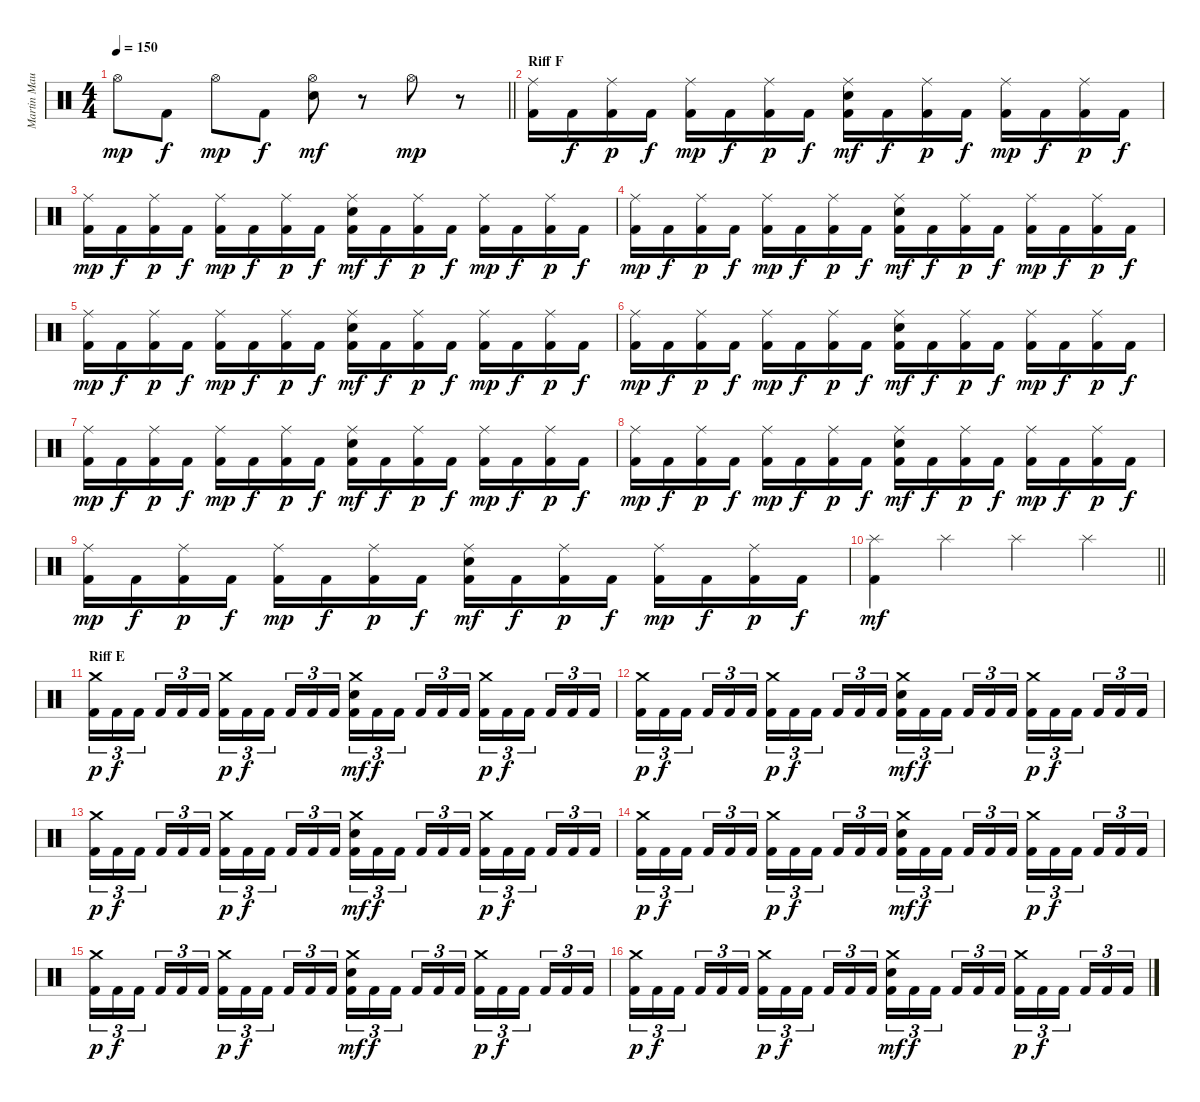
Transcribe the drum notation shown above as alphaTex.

\track ("Martin Maurais" "Martin Mau") {instrument percussion}
\staff {score}
\articulation defaults
\ts (4 4)
\tempo 150
\clef neutral
\barLineRight lightlight
\ks c "Hi-Hat (open)".8{dy mp} "Kick (hit) 2".8{dy f} "Hi-Hat (open)".8{dy mp} "Kick (hit) 2".8{dy f}
("Hi-Hat (open)" "Electric Snare (hit)").8{dy mf} r.8 "Hi-Hat (open)".8{dy mp} r.8 |
\section ("" "Riff F")
("Ride (middle)" "Kick (hit) 2").16 "Kick (hit) 2".16{dy f} ("Ride (middle)" "Kick (hit) 2").16{dy p} "Kick (hit) 2".16{dy f} ("Ride (middle)" "Kick (hit) 2").16{dy mp} "Kick (hit) 2".16{dy f} ("Ride (middle)" "Kick (hit) 2").16{dy p} "Kick (hit) 2".16{dy f} ("Ride (middle)" "Electric Snare (hit)" "Kick (hit) 2").16{dy mf} "Kick (hit) 2".16{dy f} ("Ride (middle)" "Kick (hit) 2").16{dy p} "Kick (hit) 2".16{dy f} ("Ride (middle)" "Kick (hit) 2").16{dy mp} "Kick (hit) 2".16{dy f} ("Ride (middle)" "Kick (hit) 2").16{dy p} "Kick (hit) 2".16{dy f} |
("Ride (middle)" "Kick (hit) 2").16{dy mp} "Kick (hit) 2".16{dy f} ("Ride (middle)" "Kick (hit) 2").16{dy p} "Kick (hit) 2".16{dy f} ("Ride (middle)" "Kick (hit) 2").16{dy mp} "Kick (hit) 2".16{dy f} ("Ride (middle)" "Kick (hit) 2").16{dy p} "Kick (hit) 2".16{dy f} ("Ride (middle)" "Electric Snare (hit)" "Kick (hit) 2").16{dy mf} "Kick (hit) 2".16{dy f} ("Ride (middle)" "Kick (hit) 2").16{dy p} "Kick (hit) 2".16{dy f} ("Ride (middle)" "Kick (hit) 2").16{dy mp} "Kick (hit) 2".16{dy f} ("Ride (middle)" "Kick (hit) 2").16{dy p} "Kick (hit) 2".16{dy f} |
("Ride (middle)" "Kick (hit) 2").16{dy mp} "Kick (hit) 2".16{dy f} ("Ride (middle)" "Kick (hit) 2").16{dy p} "Kick (hit) 2".16{dy f} ("Ride (middle)" "Kick (hit) 2").16{dy mp} "Kick (hit) 2".16{dy f} ("Ride (middle)" "Kick (hit) 2").16{dy p} "Kick (hit) 2".16{dy f} ("Ride (middle)" "Electric Snare (hit)" "Kick (hit) 2").16{dy mf} "Kick (hit) 2".16{dy f} ("Ride (middle)" "Kick (hit) 2").16{dy p} "Kick (hit) 2".16{dy f} ("Ride (middle)" "Kick (hit) 2").16{dy mp} "Kick (hit) 2".16{dy f} ("Ride (middle)" "Kick (hit) 2").16{dy p} "Kick (hit) 2".16{dy f} |
("Ride (middle)" "Kick (hit) 2").16{dy mp} "Kick (hit) 2".16{dy f} ("Ride (middle)" "Kick (hit) 2").16{dy p} "Kick (hit) 2".16{dy f} ("Ride (middle)" "Kick (hit) 2").16{dy mp} "Kick (hit) 2".16{dy f} ("Ride (middle)" "Kick (hit) 2").16{dy p} "Kick (hit) 2".16{dy f} ("Ride (middle)" "Electric Snare (hit)" "Kick (hit) 2").16{dy mf} "Kick (hit) 2".16{dy f} ("Ride (middle)" "Kick (hit) 2").16{dy p} "Kick (hit) 2".16{dy f} ("Ride (middle)" "Kick (hit) 2").16{dy mp} "Kick (hit) 2".16{dy f} ("Ride (middle)" "Kick (hit) 2").16{dy p} "Kick (hit) 2".16{dy f} |
("Ride (middle)" "Kick (hit) 2").16{dy mp} "Kick (hit) 2".16{dy f} ("Ride (middle)" "Kick (hit) 2").16{dy p} "Kick (hit) 2".16{dy f} ("Ride (middle)" "Kick (hit) 2").16{dy mp} "Kick (hit) 2".16{dy f} ("Ride (middle)" "Kick (hit) 2").16{dy p} "Kick (hit) 2".16{dy f} ("Ride (middle)" "Electric Snare (hit)" "Kick (hit) 2").16{dy mf} "Kick (hit) 2".16{dy f} ("Ride (middle)" "Kick (hit) 2").16{dy p} "Kick (hit) 2".16{dy f} ("Ride (middle)" "Kick (hit) 2").16{dy mp} "Kick (hit) 2".16{dy f} ("Ride (middle)" "Kick (hit) 2").16{dy p} "Kick (hit) 2".16{dy f} |
("Ride (middle)" "Kick (hit) 2").16{dy mp} "Kick (hit) 2".16{dy f} ("Ride (middle)" "Kick (hit) 2").16{dy p} "Kick (hit) 2".16{dy f} ("Ride (middle)" "Kick (hit) 2").16{dy mp} "Kick (hit) 2".16{dy f} ("Ride (middle)" "Kick (hit) 2").16{dy p} "Kick (hit) 2".16{dy f} ("Ride (middle)" "Electric Snare (hit)" "Kick (hit) 2").16{dy mf} "Kick (hit) 2".16{dy f} ("Ride (middle)" "Kick (hit) 2").16{dy p} "Kick (hit) 2".16{dy f} ("Ride (middle)" "Kick (hit) 2").16{dy mp} "Kick (hit) 2".16{dy f} ("Ride (middle)" "Kick (hit) 2").16{dy p} "Kick (hit) 2".16{dy f} |
("Ride (middle)" "Kick (hit) 2").16{dy mp} "Kick (hit) 2".16{dy f} ("Ride (middle)" "Kick (hit) 2").16{dy p} "Kick (hit) 2".16{dy f} ("Ride (middle)" "Kick (hit) 2").16{dy mp} "Kick (hit) 2".16{dy f} ("Ride (middle)" "Kick (hit) 2").16{dy p} "Kick (hit) 2".16{dy f} ("Ride (middle)" "Electric Snare (hit)" "Kick (hit) 2").16{dy mf} "Kick (hit) 2".16{dy f} ("Ride (middle)" "Kick (hit) 2").16{dy p} "Kick (hit) 2".16{dy f} ("Ride (middle)" "Kick (hit) 2").16{dy mp} "Kick (hit) 2".16{dy f} ("Ride (middle)" "Kick (hit) 2").16{dy p} "Kick (hit) 2".16{dy f} |
("Ride (middle)" "Kick (hit) 2").16{dy mp} "Kick (hit) 2".16{dy f} ("Ride (middle)" "Kick (hit) 2").16{dy p} "Kick (hit) 2".16{dy f} ("Ride (middle)" "Kick (hit) 2").16{dy mp} "Kick (hit) 2".16{dy f} ("Ride (middle)" "Kick (hit) 2").16{dy p} "Kick (hit) 2".16{dy f} ("Ride (middle)" "Electric Snare (hit)" "Kick (hit) 2").16{dy mf} "Kick (hit) 2".16{dy f} ("Ride (middle)" "Kick (hit) 2").16{dy p} "Kick (hit) 2".16{dy f} ("Ride (middle)" "Kick (hit) 2").16{dy mp} "Kick (hit) 2".16{dy f} ("Ride (middle)" "Kick (hit) 2").16{dy p} "Kick (hit) 2".16{dy f} |
\barLineRight lightlight
("Splash (hit)" "Kick (hit) 2").4{dy mf} "Splash (hit)".4 "Splash (hit)".4 "Splash (hit)".4 |
\section ("" "Riff E")
("Crash medium (hit)" "Kick (hit) 2").16{tu (3 2) dy p} "Kick (hit) 2".16{tu (3 2) dy f} "Kick (hit) 2".16{tu (3 2) beam splitsecondary} "Kick (hit) 2".16{tu (3 2)} "Kick (hit) 2".16{tu (3 2)} "Kick (hit) 2".16{tu (3 2)} ("Crash medium (hit)" "Kick (hit) 2").16{tu (3 2) dy p} "Kick (hit) 2".16{tu (3 2) dy f} "Kick (hit) 2".16{tu (3 2) beam splitsecondary} "Kick (hit) 2".16{tu (3 2)} "Kick (hit) 2".16{tu (3 2)} "Kick (hit) 2".16{tu (3 2)} ("Crash medium (hit)" "Electric Snare (hit)" "Kick (hit) 2").16{tu (3 2) dy mf} "Kick (hit) 2".16{tu (3 2) dy f} "Kick (hit) 2".16{tu (3 2) beam splitsecondary} "Kick (hit) 2".16{tu (3 2)} "Kick (hit) 2".16{tu (3 2)} "Kick (hit) 2".16{tu (3 2)} ("Crash medium (hit)" "Kick (hit) 2").16{tu (3 2) dy p} "Kick (hit) 2".16{tu (3 2) dy f} "Kick (hit) 2".16{tu (3 2) beam splitsecondary} "Kick (hit) 2".16{tu (3 2)} "Kick (hit) 2".16{tu (3 2)} "Kick (hit) 2".16{tu (3 2)} |
("Crash medium (hit)" "Kick (hit) 2").16{tu (3 2) dy p} "Kick (hit) 2".16{tu (3 2) dy f} "Kick (hit) 2".16{tu (3 2) beam splitsecondary} "Kick (hit) 2".16{tu (3 2)} "Kick (hit) 2".16{tu (3 2)} "Kick (hit) 2".16{tu (3 2)} ("Crash medium (hit)" "Kick (hit) 2").16{tu (3 2) dy p} "Kick (hit) 2".16{tu (3 2) dy f} "Kick (hit) 2".16{tu (3 2) beam splitsecondary} "Kick (hit) 2".16{tu (3 2)} "Kick (hit) 2".16{tu (3 2)} "Kick (hit) 2".16{tu (3 2)} ("Crash medium (hit)" "Electric Snare (hit)" "Kick (hit) 2").16{tu (3 2) dy mf} "Kick (hit) 2".16{tu (3 2) dy f} "Kick (hit) 2".16{tu (3 2) beam splitsecondary} "Kick (hit) 2".16{tu (3 2)} "Kick (hit) 2".16{tu (3 2)} "Kick (hit) 2".16{tu (3 2)} ("Crash medium (hit)" "Kick (hit) 2").16{tu (3 2) dy p} "Kick (hit) 2".16{tu (3 2) dy f} "Kick (hit) 2".16{tu (3 2) beam splitsecondary} "Kick (hit) 2".16{tu (3 2)} "Kick (hit) 2".16{tu (3 2)} "Kick (hit) 2".16{tu (3 2)} |
("Crash medium (hit)" "Kick (hit) 2").16{tu (3 2) dy p} "Kick (hit) 2".16{tu (3 2) dy f} "Kick (hit) 2".16{tu (3 2) beam splitsecondary} "Kick (hit) 2".16{tu (3 2)} "Kick (hit) 2".16{tu (3 2)} "Kick (hit) 2".16{tu (3 2)} ("Crash medium (hit)" "Kick (hit) 2").16{tu (3 2) dy p} "Kick (hit) 2".16{tu (3 2) dy f} "Kick (hit) 2".16{tu (3 2) beam splitsecondary} "Kick (hit) 2".16{tu (3 2)} "Kick (hit) 2".16{tu (3 2)} "Kick (hit) 2".16{tu (3 2)} ("Crash medium (hit)" "Electric Snare (hit)" "Kick (hit) 2").16{tu (3 2) dy mf} "Kick (hit) 2".16{tu (3 2) dy f} "Kick (hit) 2".16{tu (3 2) beam splitsecondary} "Kick (hit) 2".16{tu (3 2)} "Kick (hit) 2".16{tu (3 2)} "Kick (hit) 2".16{tu (3 2)} ("Crash medium (hit)" "Kick (hit) 2").16{tu (3 2) dy p} "Kick (hit) 2".16{tu (3 2) dy f} "Kick (hit) 2".16{tu (3 2) beam splitsecondary} "Kick (hit) 2".16{tu (3 2)} "Kick (hit) 2".16{tu (3 2)} "Kick (hit) 2".16{tu (3 2)} |
("Crash medium (hit)" "Kick (hit) 2").16{tu (3 2) dy p} "Kick (hit) 2".16{tu (3 2) dy f} "Kick (hit) 2".16{tu (3 2) beam splitsecondary} "Kick (hit) 2".16{tu (3 2)} "Kick (hit) 2".16{tu (3 2)} "Kick (hit) 2".16{tu (3 2)} ("Crash medium (hit)" "Kick (hit) 2").16{tu (3 2) dy p} "Kick (hit) 2".16{tu (3 2) dy f} "Kick (hit) 2".16{tu (3 2) beam splitsecondary} "Kick (hit) 2".16{tu (3 2)} "Kick (hit) 2".16{tu (3 2)} "Kick (hit) 2".16{tu (3 2)} ("Crash medium (hit)" "Electric Snare (hit)" "Kick (hit) 2").16{tu (3 2) dy mf} "Kick (hit) 2".16{tu (3 2) dy f} "Kick (hit) 2".16{tu (3 2) beam splitsecondary} "Kick (hit) 2".16{tu (3 2)} "Kick (hit) 2".16{tu (3 2)} "Kick (hit) 2".16{tu (3 2)} ("Crash medium (hit)" "Kick (hit) 2").16{tu (3 2) dy p} "Kick (hit) 2".16{tu (3 2) dy f} "Kick (hit) 2".16{tu (3 2) beam splitsecondary} "Kick (hit) 2".16{tu (3 2)} "Kick (hit) 2".16{tu (3 2)} "Kick (hit) 2".16{tu (3 2)} |
("Crash medium (hit)" "Kick (hit) 2").16{tu (3 2) dy p} "Kick (hit) 2".16{tu (3 2) dy f} "Kick (hit) 2".16{tu (3 2) beam splitsecondary} "Kick (hit) 2".16{tu (3 2)} "Kick (hit) 2".16{tu (3 2)} "Kick (hit) 2".16{tu (3 2)} ("Crash medium (hit)" "Kick (hit) 2").16{tu (3 2) dy p} "Kick (hit) 2".16{tu (3 2) dy f} "Kick (hit) 2".16{tu (3 2) beam splitsecondary} "Kick (hit) 2".16{tu (3 2)} "Kick (hit) 2".16{tu (3 2)} "Kick (hit) 2".16{tu (3 2)} ("Crash medium (hit)" "Electric Snare (hit)" "Kick (hit) 2").16{tu (3 2) dy mf} "Kick (hit) 2".16{tu (3 2) dy f} "Kick (hit) 2".16{tu (3 2) beam splitsecondary} "Kick (hit) 2".16{tu (3 2)} "Kick (hit) 2".16{tu (3 2)} "Kick (hit) 2".16{tu (3 2)} ("Crash medium (hit)" "Kick (hit) 2").16{tu (3 2) dy p} "Kick (hit) 2".16{tu (3 2) dy f} "Kick (hit) 2".16{tu (3 2) beam splitsecondary} "Kick (hit) 2".16{tu (3 2)} "Kick (hit) 2".16{tu (3 2)} "Kick (hit) 2".16{tu (3 2)} |
("Crash medium (hit)" "Kick (hit) 2").16{tu (3 2) dy p} "Kick (hit) 2".16{tu (3 2) dy f} "Kick (hit) 2".16{tu (3 2) beam splitsecondary} "Kick (hit) 2".16{tu (3 2)} "Kick (hit) 2".16{tu (3 2)} "Kick (hit) 2".16{tu (3 2)} ("Crash medium (hit)" "Kick (hit) 2").16{tu (3 2) dy p} "Kick (hit) 2".16{tu (3 2) dy f} "Kick (hit) 2".16{tu (3 2) beam splitsecondary} "Kick (hit) 2".16{tu (3 2)} "Kick (hit) 2".16{tu (3 2)} "Kick (hit) 2".16{tu (3 2)} ("Crash medium (hit)" "Electric Snare (hit)" "Kick (hit) 2").16{tu (3 2) dy mf} "Kick (hit) 2".16{tu (3 2) dy f} "Kick (hit) 2".16{tu (3 2) beam splitsecondary} "Kick (hit) 2".16{tu (3 2)} "Kick (hit) 2".16{tu (3 2)} "Kick (hit) 2".16{tu (3 2)} ("Crash medium (hit)" "Kick (hit) 2").16{tu (3 2) dy p} "Kick (hit) 2".16{tu (3 2) dy f} "Kick (hit) 2".16{tu (3 2) beam splitsecondary} "Kick (hit) 2".16{tu (3 2)} "Kick (hit) 2".16{tu (3 2)} "Kick (hit) 2".16{tu (3 2)}
